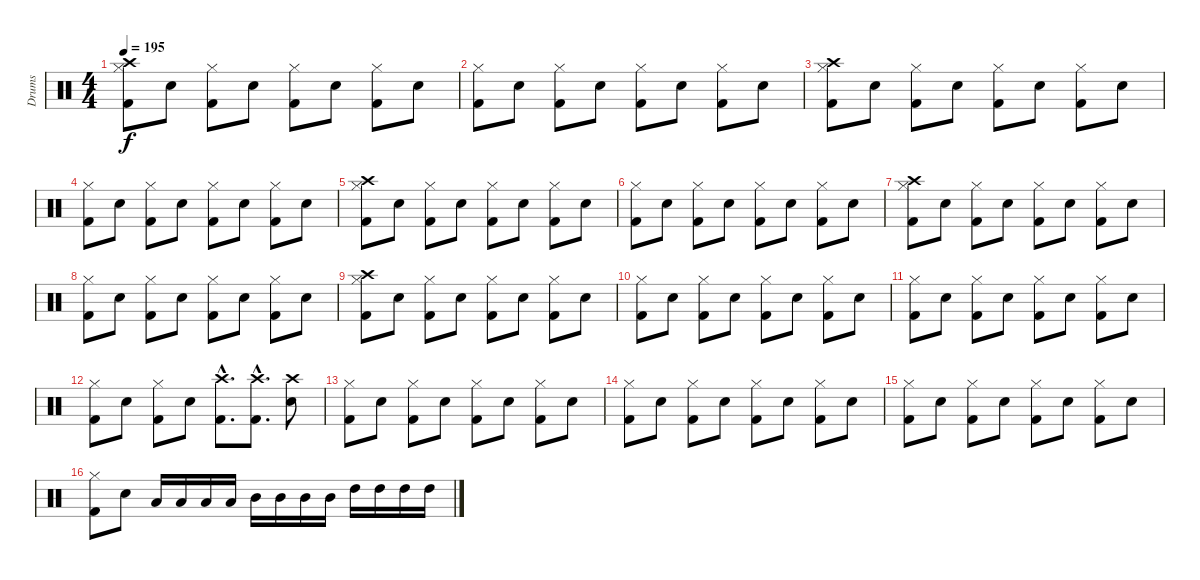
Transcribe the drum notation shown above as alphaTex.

\track ("Drums" "Drums") {instrument percussion}
\staff {score}
\articulation defaults
\ts (4 4)
\tempo 195
\clef neutral
\ks c
("Crash high (hit)" "Kick (hit) 2" "Hi-Hat (closed)").8{dy f} "Snare (hit) 2".8 ("Kick (hit) 2" "Hi-Hat (closed)").8 "Snare (hit) 2".8 ("Kick (hit) 2" "Hi-Hat (closed)").8 "Snare (hit) 2".8 ("Kick (hit) 2" "Hi-Hat (closed)").8 "Snare (hit) 2".8 |
("Kick (hit) 2" "Hi-Hat (closed)").8 "Snare (hit) 2".8 ("Kick (hit) 2" "Hi-Hat (closed)").8 "Snare (hit) 2".8 ("Kick (hit) 2" "Hi-Hat (closed)").8 "Snare (hit) 2".8 ("Kick (hit) 2" "Hi-Hat (closed)").8 "Snare (hit) 2".8 |
("Crash high (hit)" "Kick (hit) 2" "Hi-Hat (closed)").8 "Snare (hit) 2".8 ("Kick (hit) 2" "Hi-Hat (closed)").8 "Snare (hit) 2".8 ("Kick (hit) 2" "Hi-Hat (closed)").8 "Snare (hit) 2".8 ("Kick (hit) 2" "Hi-Hat (closed)").8 "Snare (hit) 2".8 |
("Kick (hit) 2" "Hi-Hat (closed)").8 "Snare (hit) 2".8 ("Kick (hit) 2" "Hi-Hat (closed)").8 "Snare (hit) 2".8 ("Kick (hit) 2" "Hi-Hat (closed)").8 "Snare (hit) 2".8 ("Kick (hit) 2" "Hi-Hat (closed)").8 "Snare (hit) 2".8 |
("Crash high (hit)" "Kick (hit) 2" "Hi-Hat (closed)").8 "Snare (hit) 2".8 ("Kick (hit) 2" "Hi-Hat (closed)").8 "Snare (hit) 2".8 ("Kick (hit) 2" "Hi-Hat (closed)").8 "Snare (hit) 2".8 ("Kick (hit) 2" "Hi-Hat (closed)").8 "Snare (hit) 2".8 |
("Kick (hit) 2" "Hi-Hat (closed)").8 "Snare (hit) 2".8 ("Kick (hit) 2" "Hi-Hat (closed)").8 "Snare (hit) 2".8 ("Kick (hit) 2" "Hi-Hat (closed)").8 "Snare (hit) 2".8 ("Kick (hit) 2" "Hi-Hat (closed)").8 "Snare (hit) 2".8 |
("Crash high (hit)" "Kick (hit) 2" "Hi-Hat (closed)").8 "Snare (hit) 2".8 ("Kick (hit) 2" "Hi-Hat (closed)").8 "Snare (hit) 2".8 ("Kick (hit) 2" "Hi-Hat (closed)").8 "Snare (hit) 2".8 ("Kick (hit) 2" "Hi-Hat (closed)").8 "Snare (hit) 2".8 |
("Kick (hit) 2" "Hi-Hat (closed)").8 "Snare (hit) 2".8 ("Kick (hit) 2" "Hi-Hat (closed)").8 "Snare (hit) 2".8 ("Kick (hit) 2" "Hi-Hat (closed)").8 "Snare (hit) 2".8 ("Kick (hit) 2" "Hi-Hat (closed)").8 "Snare (hit) 2".8 |
("Crash high (hit)" "Kick (hit) 2" "Hi-Hat (closed)").8 "Snare (hit) 2".8 ("Kick (hit) 2" "Hi-Hat (closed)").8 "Snare (hit) 2".8 ("Kick (hit) 2" "Hi-Hat (closed)").8 "Snare (hit) 2".8 ("Kick (hit) 2" "Hi-Hat (closed)").8 "Snare (hit) 2".8 |
("Kick (hit) 2" "Hi-Hat (closed)").8 "Snare (hit) 2".8 ("Kick (hit) 2" "Hi-Hat (closed)").8 "Snare (hit) 2".8 ("Kick (hit) 2" "Hi-Hat (closed)").8 "Snare (hit) 2".8 ("Kick (hit) 2" "Hi-Hat (closed)").8 "Snare (hit) 2".8 |
("Kick (hit) 2" "Hi-Hat (closed)").8 "Snare (hit) 2".8 ("Kick (hit) 2" "Hi-Hat (closed)").8 "Snare (hit) 2".8 ("Kick (hit) 2" "Hi-Hat (closed)").8 "Snare (hit) 2".8 ("Kick (hit) 2" "Hi-Hat (closed)").8 "Snare (hit) 2".8 |
("Kick (hit) 2" "Hi-Hat (closed)").8 "Snare (hit) 2".8 ("Kick (hit) 2" "Hi-Hat (closed)").8 "Snare (hit) 2".8 ("Kick (hit) 2"{hac} "Crash high (hit)"{hac}).8{d} ("Kick (hit) 2"{hac} "Crash high (hit)"{hac}).8{d} ("Snare (hit) 2" "Crash high (hit)").8 |
("Kick (hit) 2" "Hi-Hat (closed)").8 "Snare (hit) 2".8 ("Kick (hit) 2" "Hi-Hat (closed)").8 "Snare (hit) 2".8 ("Kick (hit) 2" "Hi-Hat (closed)").8 "Snare (hit) 2".8 ("Kick (hit) 2" "Hi-Hat (closed)").8 "Snare (hit) 2".8 |
("Kick (hit) 2" "Hi-Hat (closed)").8 "Snare (hit) 2".8 ("Kick (hit) 2" "Hi-Hat (closed)").8 "Snare (hit) 2".8 ("Kick (hit) 2" "Hi-Hat (closed)").8 "Snare (hit) 2".8 ("Kick (hit) 2" "Hi-Hat (closed)").8 "Snare (hit) 2".8 |
("Kick (hit) 2" "Hi-Hat (closed)").8 "Snare (hit) 2".8 ("Kick (hit) 2" "Hi-Hat (closed)").8 "Snare (hit) 2".8 ("Kick (hit) 2" "Hi-Hat (closed)").8 "Snare (hit) 2".8 ("Kick (hit) 2" "Hi-Hat (closed)").8 "Snare (hit) 2".8 |
("Kick (hit) 2" "Hi-Hat (closed)").8 "Snare (hit) 2".8 "Low Tom (hit)".16 "Low Tom (hit)".16 "Low Tom (hit)".16 "Low Tom (hit)".16 "Mid Tom (hit)".16 "Mid Tom (hit)".16 "Mid Tom (hit)".16 "Mid Tom (hit)".16 "High Tom (hit)".16 "High Tom (hit)".16 "High Tom (hit)".16 "High Tom (hit)".16
